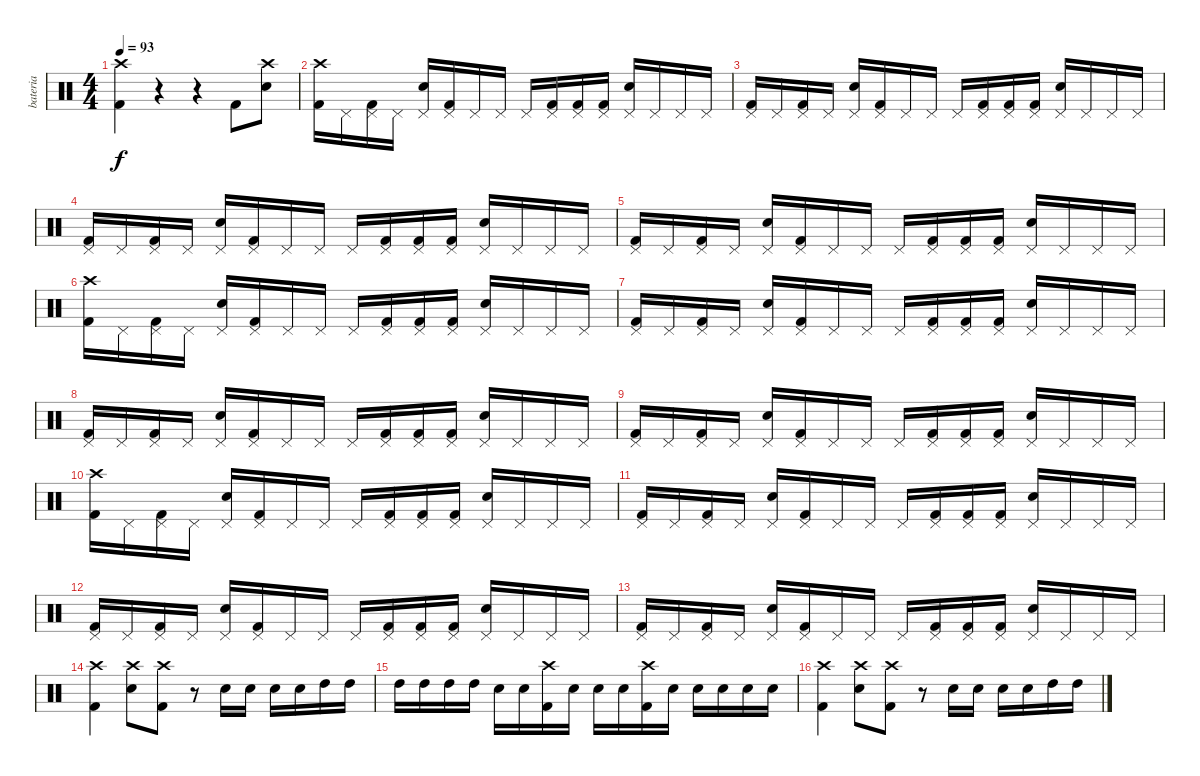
\track ("bateria" "bateria") {instrument percussion}
\staff {score}
\articulation defaults
\ts (4 4)
\tempo 93
\clef neutral
\ks c
("Crash high (hit)" "Kick (hit) 2").4{dy f} r.4 r.4 "Kick (hit) 2".8 ("Crash high (hit)" "Snare (hit) 2").8 |
("Kick (hit) 2" "Crash high (hit)").16 "Pedal Hi-Hat (hit)".16 ("Kick (hit) 2" "Pedal Hi-Hat (hit)").16 "Pedal Hi-Hat (hit)".16 ("Snare (hit) 2" "Pedal Hi-Hat (hit)").16 ("Kick (hit) 2" "Pedal Hi-Hat (hit)").16 "Pedal Hi-Hat (hit)".16 "Pedal Hi-Hat (hit)".16 "Pedal Hi-Hat (hit)".16 ("Kick (hit) 2" "Pedal Hi-Hat (hit)").16 ("Kick (hit) 2" "Pedal Hi-Hat (hit)").16 ("Kick (hit) 2" "Pedal Hi-Hat (hit)").16 ("Snare (hit) 2" "Pedal Hi-Hat (hit)").16 "Pedal Hi-Hat (hit)".16 "Pedal Hi-Hat (hit)".16 "Pedal Hi-Hat (hit)".16 |
("Kick (hit) 2" "Pedal Hi-Hat (hit)").16 "Pedal Hi-Hat (hit)".16 ("Kick (hit) 2" "Pedal Hi-Hat (hit)").16 "Pedal Hi-Hat (hit)".16 ("Snare (hit) 2" "Pedal Hi-Hat (hit)").16 ("Kick (hit) 2" "Pedal Hi-Hat (hit)").16 "Pedal Hi-Hat (hit)".16 "Pedal Hi-Hat (hit)".16 "Pedal Hi-Hat (hit)".16 ("Kick (hit) 2" "Pedal Hi-Hat (hit)").16 ("Kick (hit) 2" "Pedal Hi-Hat (hit)").16 ("Kick (hit) 2" "Pedal Hi-Hat (hit)").16 ("Snare (hit) 2" "Pedal Hi-Hat (hit)").16 "Pedal Hi-Hat (hit)".16 "Pedal Hi-Hat (hit)".16 "Pedal Hi-Hat (hit)".16 |
("Kick (hit) 2" "Pedal Hi-Hat (hit)").16 "Pedal Hi-Hat (hit)".16 ("Kick (hit) 2" "Pedal Hi-Hat (hit)").16 "Pedal Hi-Hat (hit)".16 ("Snare (hit) 2" "Pedal Hi-Hat (hit)").16 ("Kick (hit) 2" "Pedal Hi-Hat (hit)").16 "Pedal Hi-Hat (hit)".16 "Pedal Hi-Hat (hit)".16 "Pedal Hi-Hat (hit)".16 ("Kick (hit) 2" "Pedal Hi-Hat (hit)").16 ("Kick (hit) 2" "Pedal Hi-Hat (hit)").16 ("Kick (hit) 2" "Pedal Hi-Hat (hit)").16 ("Snare (hit) 2" "Pedal Hi-Hat (hit)").16 "Pedal Hi-Hat (hit)".16 "Pedal Hi-Hat (hit)".16 "Pedal Hi-Hat (hit)".16 |
("Kick (hit) 2" "Pedal Hi-Hat (hit)").16 "Pedal Hi-Hat (hit)".16 ("Kick (hit) 2" "Pedal Hi-Hat (hit)").16 "Pedal Hi-Hat (hit)".16 ("Snare (hit) 2" "Pedal Hi-Hat (hit)").16 ("Kick (hit) 2" "Pedal Hi-Hat (hit)").16 "Pedal Hi-Hat (hit)".16 "Pedal Hi-Hat (hit)".16 "Pedal Hi-Hat (hit)".16 ("Kick (hit) 2" "Pedal Hi-Hat (hit)").16 ("Kick (hit) 2" "Pedal Hi-Hat (hit)").16 ("Kick (hit) 2" "Pedal Hi-Hat (hit)").16 ("Snare (hit) 2" "Pedal Hi-Hat (hit)").16 "Pedal Hi-Hat (hit)".16 "Pedal Hi-Hat (hit)".16 "Pedal Hi-Hat (hit)".16 |
("Kick (hit) 2" "Crash high (hit)").16 "Pedal Hi-Hat (hit)".16 ("Kick (hit) 2" "Pedal Hi-Hat (hit)").16 "Pedal Hi-Hat (hit)".16 ("Snare (hit) 2" "Pedal Hi-Hat (hit)").16 ("Kick (hit) 2" "Pedal Hi-Hat (hit)").16 "Pedal Hi-Hat (hit)".16 "Pedal Hi-Hat (hit)".16 "Pedal Hi-Hat (hit)".16 ("Kick (hit) 2" "Pedal Hi-Hat (hit)").16 ("Kick (hit) 2" "Pedal Hi-Hat (hit)").16 ("Kick (hit) 2" "Pedal Hi-Hat (hit)").16 ("Snare (hit) 2" "Pedal Hi-Hat (hit)").16 "Pedal Hi-Hat (hit)".16 "Pedal Hi-Hat (hit)".16 "Pedal Hi-Hat (hit)".16 |
("Kick (hit) 2" "Pedal Hi-Hat (hit)").16 "Pedal Hi-Hat (hit)".16 ("Kick (hit) 2" "Pedal Hi-Hat (hit)").16 "Pedal Hi-Hat (hit)".16 ("Snare (hit) 2" "Pedal Hi-Hat (hit)").16 ("Kick (hit) 2" "Pedal Hi-Hat (hit)").16 "Pedal Hi-Hat (hit)".16 "Pedal Hi-Hat (hit)".16 "Pedal Hi-Hat (hit)".16 ("Kick (hit) 2" "Pedal Hi-Hat (hit)").16 ("Kick (hit) 2" "Pedal Hi-Hat (hit)").16 ("Kick (hit) 2" "Pedal Hi-Hat (hit)").16 ("Snare (hit) 2" "Pedal Hi-Hat (hit)").16 "Pedal Hi-Hat (hit)".16 "Pedal Hi-Hat (hit)".16 "Pedal Hi-Hat (hit)".16 |
("Kick (hit) 2" "Pedal Hi-Hat (hit)").16 "Pedal Hi-Hat (hit)".16 ("Kick (hit) 2" "Pedal Hi-Hat (hit)").16 "Pedal Hi-Hat (hit)".16 ("Snare (hit) 2" "Pedal Hi-Hat (hit)").16 ("Kick (hit) 2" "Pedal Hi-Hat (hit)").16 "Pedal Hi-Hat (hit)".16 "Pedal Hi-Hat (hit)".16 "Pedal Hi-Hat (hit)".16 ("Kick (hit) 2" "Pedal Hi-Hat (hit)").16 ("Kick (hit) 2" "Pedal Hi-Hat (hit)").16 ("Kick (hit) 2" "Pedal Hi-Hat (hit)").16 ("Snare (hit) 2" "Pedal Hi-Hat (hit)").16 "Pedal Hi-Hat (hit)".16 "Pedal Hi-Hat (hit)".16 "Pedal Hi-Hat (hit)".16 |
("Kick (hit) 2" "Pedal Hi-Hat (hit)").16 "Pedal Hi-Hat (hit)".16 ("Kick (hit) 2" "Pedal Hi-Hat (hit)").16 "Pedal Hi-Hat (hit)".16 ("Snare (hit) 2" "Pedal Hi-Hat (hit)").16 ("Kick (hit) 2" "Pedal Hi-Hat (hit)").16 "Pedal Hi-Hat (hit)".16 "Pedal Hi-Hat (hit)".16 "Pedal Hi-Hat (hit)".16 ("Kick (hit) 2" "Pedal Hi-Hat (hit)").16 ("Kick (hit) 2" "Pedal Hi-Hat (hit)").16 ("Kick (hit) 2" "Pedal Hi-Hat (hit)").16 ("Snare (hit) 2" "Pedal Hi-Hat (hit)").16 "Pedal Hi-Hat (hit)".16 "Pedal Hi-Hat (hit)".16 "Pedal Hi-Hat (hit)".16 |
("Kick (hit) 2" "Crash high (hit)").16 "Pedal Hi-Hat (hit)".16 ("Kick (hit) 2" "Pedal Hi-Hat (hit)").16 "Pedal Hi-Hat (hit)".16 ("Snare (hit) 2" "Pedal Hi-Hat (hit)").16 ("Kick (hit) 2" "Pedal Hi-Hat (hit)").16 "Pedal Hi-Hat (hit)".16 "Pedal Hi-Hat (hit)".16 "Pedal Hi-Hat (hit)".16 ("Kick (hit) 2" "Pedal Hi-Hat (hit)").16 ("Kick (hit) 2" "Pedal Hi-Hat (hit)").16 ("Kick (hit) 2" "Pedal Hi-Hat (hit)").16 ("Snare (hit) 2" "Pedal Hi-Hat (hit)").16 "Pedal Hi-Hat (hit)".16 "Pedal Hi-Hat (hit)".16 "Pedal Hi-Hat (hit)".16 |
("Kick (hit) 2" "Pedal Hi-Hat (hit)").16 "Pedal Hi-Hat (hit)".16 ("Kick (hit) 2" "Pedal Hi-Hat (hit)").16 "Pedal Hi-Hat (hit)".16 ("Snare (hit) 2" "Pedal Hi-Hat (hit)").16 ("Kick (hit) 2" "Pedal Hi-Hat (hit)").16 "Pedal Hi-Hat (hit)".16 "Pedal Hi-Hat (hit)".16 "Pedal Hi-Hat (hit)".16 ("Kick (hit) 2" "Pedal Hi-Hat (hit)").16 ("Kick (hit) 2" "Pedal Hi-Hat (hit)").16 ("Kick (hit) 2" "Pedal Hi-Hat (hit)").16 ("Snare (hit) 2" "Pedal Hi-Hat (hit)").16 "Pedal Hi-Hat (hit)".16 "Pedal Hi-Hat (hit)".16 "Pedal Hi-Hat (hit)".16 |
("Kick (hit) 2" "Pedal Hi-Hat (hit)").16 "Pedal Hi-Hat (hit)".16 ("Kick (hit) 2" "Pedal Hi-Hat (hit)").16 "Pedal Hi-Hat (hit)".16 ("Snare (hit) 2" "Pedal Hi-Hat (hit)").16 ("Kick (hit) 2" "Pedal Hi-Hat (hit)").16 "Pedal Hi-Hat (hit)".16 "Pedal Hi-Hat (hit)".16 "Pedal Hi-Hat (hit)".16 ("Kick (hit) 2" "Pedal Hi-Hat (hit)").16 ("Kick (hit) 2" "Pedal Hi-Hat (hit)").16 ("Kick (hit) 2" "Pedal Hi-Hat (hit)").16 ("Snare (hit) 2" "Pedal Hi-Hat (hit)").16 "Pedal Hi-Hat (hit)".16 "Pedal Hi-Hat (hit)".16 "Pedal Hi-Hat (hit)".16 |
("Kick (hit) 2" "Pedal Hi-Hat (hit)").16 "Pedal Hi-Hat (hit)".16 ("Kick (hit) 2" "Pedal Hi-Hat (hit)").16 "Pedal Hi-Hat (hit)".16 ("Snare (hit) 2" "Pedal Hi-Hat (hit)").16 ("Kick (hit) 2" "Pedal Hi-Hat (hit)").16 "Pedal Hi-Hat (hit)".16 "Pedal Hi-Hat (hit)".16 "Pedal Hi-Hat (hit)".16 ("Kick (hit) 2" "Pedal Hi-Hat (hit)").16 ("Kick (hit) 2" "Pedal Hi-Hat (hit)").16 ("Kick (hit) 2" "Pedal Hi-Hat (hit)").16 ("Snare (hit) 2" "Pedal Hi-Hat (hit)").16 "Pedal Hi-Hat (hit)".16 "Pedal Hi-Hat (hit)".16 "Pedal Hi-Hat (hit)".16 |
("Kick (hit) 2" "Crash high (hit)").4 ("Crash high (hit)" "Snare (hit) 2").8 ("Kick (hit) 2" "Crash high (hit)").8 r.8 "Snare (hit) 2".16 "Snare (hit) 2".16 "Snare (hit) 2".16 "Snare (hit) 2".16 "High Tom (hit)".16 "High Tom (hit)".16 |
"High Tom (hit)".16 "High Tom (hit)".16 "High Tom (hit)".16 "High Tom (hit)".16 "Snare (hit) 2".16 "Snare (hit) 2".16 ("Kick (hit) 2" "Crash high (hit)").16 "Snare (hit) 2".16 "Snare (hit) 2".16 "Snare (hit) 2".16 ("Kick (hit) 2" "Crash high (hit)").16 "Snare (hit) 2".16 "Snare (hit) 2".16 "Snare (hit) 2".16 "Snare (hit) 2".16 "Snare (hit) 2".16 |
("Kick (hit) 2" "Crash high (hit)").4 ("Crash high (hit)" "Snare (hit) 2").8 ("Kick (hit) 2" "Crash high (hit)").8 r.8 "Snare (hit) 2".16 "Snare (hit) 2".16 "Snare (hit) 2".16 "Snare (hit) 2".16 "High Tom (hit)".16 "High Tom (hit)".16
